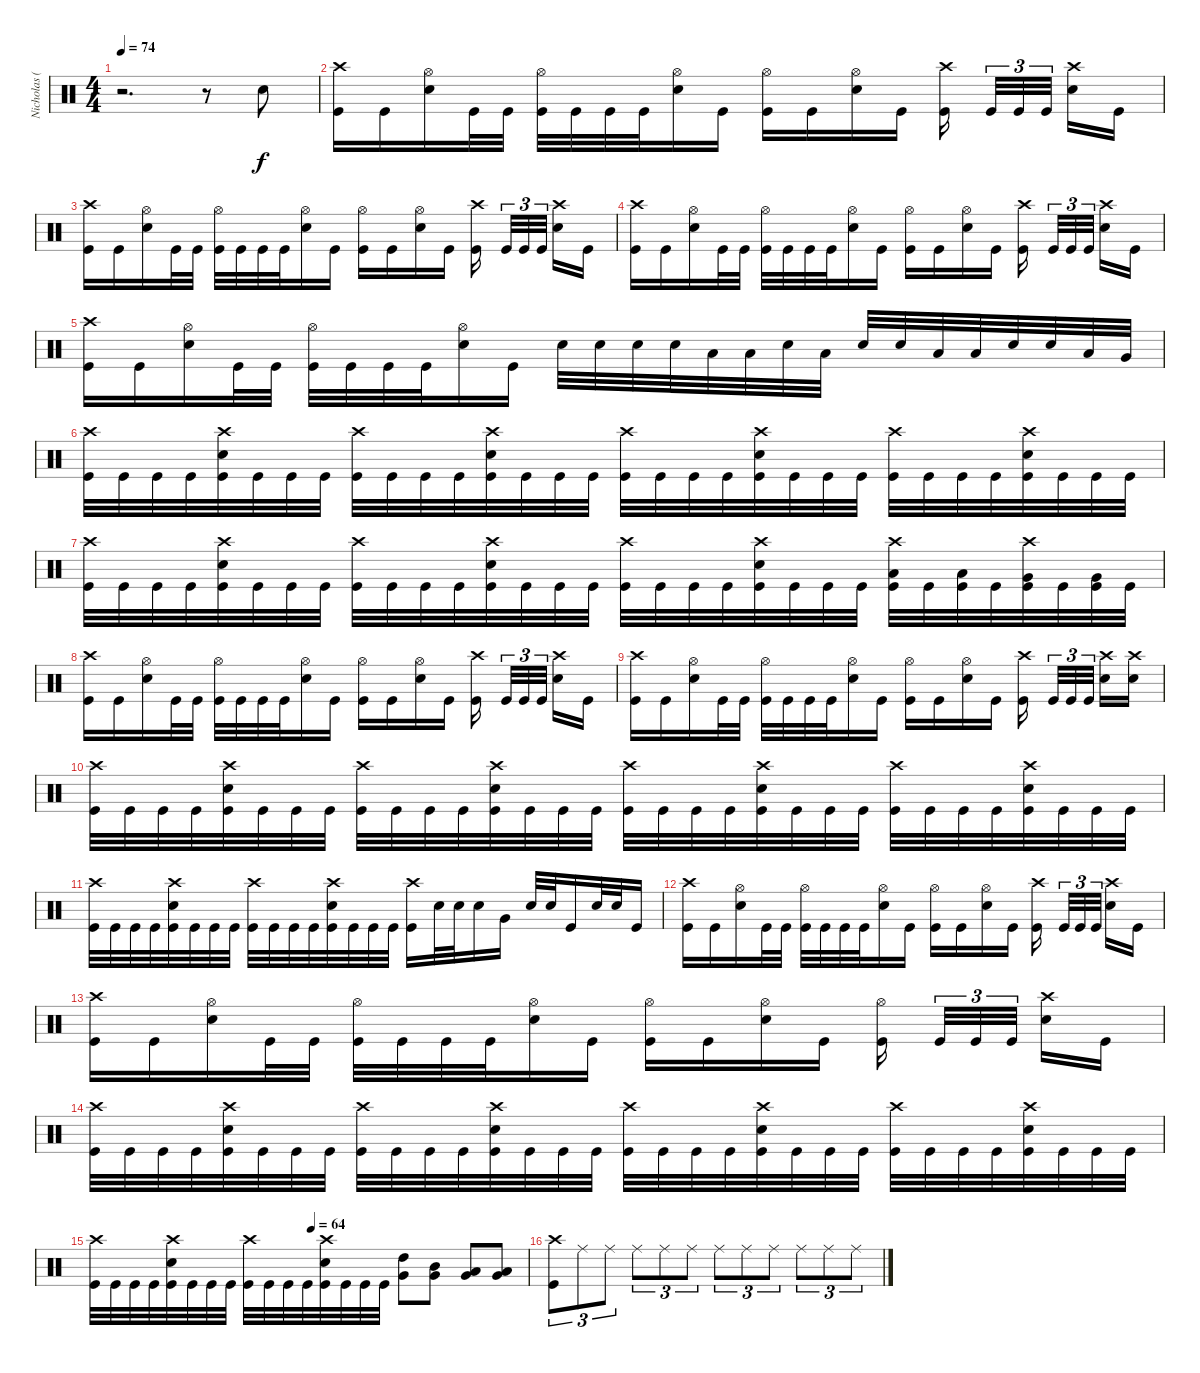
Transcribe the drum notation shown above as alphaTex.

\track ("Nicholas (Drums)" "Nicholas (") {instrument percussion}
\staff {score}
\articulation defaults
\ts (4 4)
\tempo 74
\clef neutral
\ks c
r.2{d dy f} r.8 "Electric Snare (hit)".8 |
("Crash high (hit)" "Kick (hit)").16 "Kick (hit)".16 ("Hi-Hat (open)" "Electric Snare (hit)").16 "Kick (hit)".32 "Kick (hit)".32 ("Hi-Hat (open)" "Kick (hit)").32 "Kick (hit)".32 "Kick (hit)".32 "Kick (hit)".32 ("Hi-Hat (open)" "Electric Snare (hit)").16 "Kick (hit)".16 ("Hi-Hat (open)" "Kick (hit)").16 "Kick (hit)".16 ("Hi-Hat (open)" "Electric Snare (hit)").16 "Kick (hit)".16 ("Crash high (hit)" "Kick (hit)").16 "Kick (hit)".32{tu (3 2)} "Kick (hit)".32{tu (3 2)} "Kick (hit)".32{tu (3 2)} ("Crash high (hit)" "Electric Snare (hit)").16 "Kick (hit)".16 |
("Crash high (hit)" "Kick (hit)").16 "Kick (hit)".16 ("Hi-Hat (open)" "Electric Snare (hit)").16 "Kick (hit)".32 "Kick (hit)".32 ("Hi-Hat (open)" "Kick (hit)").32 "Kick (hit)".32 "Kick (hit)".32 "Kick (hit)".32 ("Hi-Hat (open)" "Electric Snare (hit)").16 "Kick (hit)".16 ("Hi-Hat (open)" "Kick (hit)").16 "Kick (hit)".16 ("Hi-Hat (open)" "Electric Snare (hit)").16 "Kick (hit)".16 ("Crash high (hit)" "Kick (hit)").16 "Kick (hit)".32{tu (3 2)} "Kick (hit)".32{tu (3 2)} "Kick (hit)".32{tu (3 2)} ("Crash high (hit)" "Electric Snare (hit)").16 "Kick (hit)".16 |
("Crash high (hit)" "Kick (hit)").16 "Kick (hit)".16 ("Hi-Hat (open)" "Electric Snare (hit)").16 "Kick (hit)".32 "Kick (hit)".32 ("Hi-Hat (open)" "Kick (hit)").32 "Kick (hit)".32 "Kick (hit)".32 "Kick (hit)".32 ("Hi-Hat (open)" "Electric Snare (hit)").16 "Kick (hit)".16 ("Hi-Hat (open)" "Kick (hit)").16 "Kick (hit)".16 ("Hi-Hat (open)" "Electric Snare (hit)").16 "Kick (hit)".16 ("Crash high (hit)" "Kick (hit)").16 "Kick (hit)".32{tu (3 2)} "Kick (hit)".32{tu (3 2)} "Kick (hit)".32{tu (3 2)} ("Crash high (hit)" "Electric Snare (hit)").16 "Kick (hit)".16 |
("Crash high (hit)" "Kick (hit)").16 "Kick (hit)".16 ("Hi-Hat (open)" "Electric Snare (hit)").16 "Kick (hit)".32 "Kick (hit)".32 ("Hi-Hat (open)" "Kick (hit)").32 "Kick (hit)".32 "Kick (hit)".32 "Kick (hit)".32 ("Hi-Hat (open)" "Electric Snare (hit)").16 "Kick (hit)".16 "Electric Snare (hit)".32 "Electric Snare (hit)".32 "Electric Snare (hit)".32 "Electric Snare (hit)".32 "Low Tom (hit)".32 "Low Tom (hit)".32 "Electric Snare (hit)".32 "Low Tom (hit)".32 "Electric Snare (hit)".32 "Electric Snare (hit)".32 "Low Tom (hit)".32 "Low Tom (hit)".32 "Electric Snare (hit)".32 "Electric Snare (hit)".32 "Low Tom (hit)".32 "Very Low Tom (hit)".32 |
("Crash high (hit)" "Kick (hit)").32 "Kick (hit)".32 "Kick (hit)".32 "Kick (hit)".32 ("Crash high (hit)" "Electric Snare (hit)" "Kick (hit)").32 "Kick (hit)".32 "Kick (hit)".32 "Kick (hit)".32 ("Crash high (hit)" "Kick (hit)").32 "Kick (hit)".32 "Kick (hit)".32 "Kick (hit)".32 ("Crash high (hit)" "Electric Snare (hit)" "Kick (hit)").32 "Kick (hit)".32 "Kick (hit)".32 "Kick (hit)".32 ("Crash high (hit)" "Kick (hit)").32 "Kick (hit)".32 "Kick (hit)".32 "Kick (hit)".32 ("Crash high (hit)" "Electric Snare (hit)" "Kick (hit)").32 "Kick (hit)".32 "Kick (hit)".32 "Kick (hit)".32 ("Crash high (hit)" "Kick (hit)").32 "Kick (hit)".32 "Kick (hit)".32 "Kick (hit)".32 ("Crash high (hit)" "Electric Snare (hit)" "Kick (hit)").32 "Kick (hit)".32 "Kick (hit)".32 "Kick (hit)".32 |
("Crash high (hit)" "Kick (hit)").32 "Kick (hit)".32 "Kick (hit)".32 "Kick (hit)".32 ("Crash high (hit)" "Electric Snare (hit)" "Kick (hit)").32 "Kick (hit)".32 "Kick (hit)".32 "Kick (hit)".32 ("Crash high (hit)" "Kick (hit)").32 "Kick (hit)".32 "Kick (hit)".32 "Kick (hit)".32 ("Crash high (hit)" "Electric Snare (hit)" "Kick (hit)").32 "Kick (hit)".32 "Kick (hit)".32 "Kick (hit)".32 ("Crash high (hit)" "Kick (hit)").32 "Kick (hit)".32 "Kick (hit)".32 "Kick (hit)".32 ("Crash high (hit)" "Electric Snare (hit)" "Kick (hit)").32 "Kick (hit)".32 "Kick (hit)".32 "Kick (hit)".32 ("Crash high (hit)" "Low Tom (hit)" "Kick (hit)").32 "Kick (hit)".32 ("Low Tom (hit)" "Kick (hit)").32 "Kick (hit)".32 ("Crash high (hit)" "Very Low Tom (hit)" "Kick (hit)").32 "Kick (hit)".32 ("Very Low Tom (hit)" "Kick (hit)").32 "Kick (hit)".32 |
("Crash high (hit)" "Kick (hit)").16 "Kick (hit)".16 ("Hi-Hat (open)" "Electric Snare (hit)").16 "Kick (hit)".32 "Kick (hit)".32 ("Hi-Hat (open)" "Kick (hit)").32 "Kick (hit)".32 "Kick (hit)".32 "Kick (hit)".32 ("Hi-Hat (open)" "Electric Snare (hit)").16 "Kick (hit)".16 ("Hi-Hat (open)" "Kick (hit)").16 "Kick (hit)".16 ("Hi-Hat (open)" "Electric Snare (hit)").16 "Kick (hit)".16 ("Crash high (hit)" "Kick (hit)").16 "Kick (hit)".32{tu (3 2)} "Kick (hit)".32{tu (3 2)} "Kick (hit)".32{tu (3 2)} ("Crash high (hit)" "Electric Snare (hit)").16 "Kick (hit)".16 |
("Crash high (hit)" "Kick (hit)").16 "Kick (hit)".16 ("Hi-Hat (open)" "Electric Snare (hit)").16 "Kick (hit)".32 "Kick (hit)".32 ("Hi-Hat (open)" "Kick (hit)").32 "Kick (hit)".32 "Kick (hit)".32 "Kick (hit)".32 ("Hi-Hat (open)" "Electric Snare (hit)").16 "Kick (hit)".16 ("Hi-Hat (open)" "Kick (hit)").16 "Kick (hit)".16 ("Hi-Hat (open)" "Electric Snare (hit)").16 "Kick (hit)".16 ("Crash high (hit)" "Kick (hit)").16 "Kick (hit)".32{tu (3 2)} "Kick (hit)".32{tu (3 2)} "Kick (hit)".32{tu (3 2)} ("Crash high (hit)" "Electric Snare (hit)").16 ("Crash high (hit)" "Electric Snare (hit)").16 |
("Crash high (hit)" "Kick (hit)").32 "Kick (hit)".32 "Kick (hit)".32 "Kick (hit)".32 ("Crash high (hit)" "Electric Snare (hit)" "Kick (hit)").32 "Kick (hit)".32 "Kick (hit)".32 "Kick (hit)".32 ("Crash high (hit)" "Kick (hit)").32 "Kick (hit)".32 "Kick (hit)".32 "Kick (hit)".32 ("Crash high (hit)" "Electric Snare (hit)" "Kick (hit)").32 "Kick (hit)".32 "Kick (hit)".32 "Kick (hit)".32 ("Crash high (hit)" "Kick (hit)").32 "Kick (hit)".32 "Kick (hit)".32 "Kick (hit)".32 ("Crash high (hit)" "Electric Snare (hit)" "Kick (hit)").32 "Kick (hit)".32 "Kick (hit)".32 "Kick (hit)".32 ("Crash high (hit)" "Kick (hit)").32 "Kick (hit)".32 "Kick (hit)".32 "Kick (hit)".32 ("Crash high (hit)" "Electric Snare (hit)" "Kick (hit)").32 "Kick (hit)".32 "Kick (hit)".32 "Kick (hit)".32 |
("Crash high (hit)" "Kick (hit)").32 "Kick (hit)".32 "Kick (hit)".32 "Kick (hit)".32 ("Crash high (hit)" "Electric Snare (hit)" "Kick (hit)").32 "Kick (hit)".32 "Kick (hit)".32 "Kick (hit)".32 ("Crash high (hit)" "Kick (hit)").32 "Kick (hit)".32 "Kick (hit)".32 "Kick (hit)".32 ("Crash high (hit)" "Electric Snare (hit)" "Kick (hit)").32 "Kick (hit)".32 "Kick (hit)".32 "Kick (hit)".32 ("Crash high (hit)" "Kick (hit)").16 "Electric Snare (hit)".32 "Electric Snare (hit)".32 "Electric Snare (hit)".16 "Very Low Tom (hit)".16 "Electric Snare (hit)".32 "Electric Snare (hit)".32 "Kick (hit)".16 "Electric Snare (hit)".32 "Electric Snare (hit)".32 "Kick (hit)".16 |
("Crash high (hit)" "Kick (hit)").16 "Kick (hit)".16 ("Hi-Hat (open)" "Electric Snare (hit)").16 "Kick (hit)".32 "Kick (hit)".32 ("Hi-Hat (open)" "Kick (hit)").32 "Kick (hit)".32 "Kick (hit)".32 "Kick (hit)".32 ("Hi-Hat (open)" "Electric Snare (hit)").16 "Kick (hit)".16 ("Hi-Hat (open)" "Kick (hit)").16 "Kick (hit)".16 ("Hi-Hat (open)" "Electric Snare (hit)").16 "Kick (hit)".16 ("Crash high (hit)" "Kick (hit)").16 "Kick (hit)".32{tu (3 2)} "Kick (hit)".32{tu (3 2)} "Kick (hit)".32{tu (3 2)} ("Crash high (hit)" "Electric Snare (hit)").16 "Kick (hit)".16 |
("Crash high (hit)" "Kick (hit)").16 "Kick (hit)".16 ("Hi-Hat (open)" "Electric Snare (hit)").16 "Kick (hit)".32 "Kick (hit)".32 ("Hi-Hat (open)" "Kick (hit)").32 "Kick (hit)".32 "Kick (hit)".32 "Kick (hit)".32 ("Hi-Hat (open)" "Electric Snare (hit)").16 "Kick (hit)".16 ("Hi-Hat (open)" "Kick (hit)").16 "Kick (hit)".16 ("Hi-Hat (open)" "Electric Snare (hit)").16 "Kick (hit)".16 ("Hi-Hat (open)" "Kick (hit)").16 "Kick (hit)".32{tu (3 2)} "Kick (hit)".32{tu (3 2)} "Kick (hit)".32{tu (3 2)} ("Crash high (hit)" "Electric Snare (hit)").16 "Kick (hit)".16 |
("Crash high (hit)" "Kick (hit)").32 "Kick (hit)".32 "Kick (hit)".32 "Kick (hit)".32 ("Crash high (hit)" "Electric Snare (hit)" "Kick (hit)").32 "Kick (hit)".32 "Kick (hit)".32 "Kick (hit)".32 ("Crash high (hit)" "Kick (hit)").32 "Kick (hit)".32 "Kick (hit)".32 "Kick (hit)".32 ("Crash high (hit)" "Electric Snare (hit)" "Kick (hit)").32 "Kick (hit)".32 "Kick (hit)".32 "Kick (hit)".32 ("Crash high (hit)" "Kick (hit)").32 "Kick (hit)".32 "Kick (hit)".32 "Kick (hit)".32 ("Crash high (hit)" "Electric Snare (hit)" "Kick (hit)").32 "Kick (hit)".32 "Kick (hit)".32 "Kick (hit)".32 ("Crash high (hit)" "Kick (hit)").32 "Kick (hit)".32 "Kick (hit)".32 "Kick (hit)".32 ("Crash high (hit)" "Electric Snare (hit)" "Kick (hit)").32 "Kick (hit)".32 "Kick (hit)".32 "Kick (hit)".32 |
\tempo (64 0.5)
("Crash high (hit)" "Kick (hit)").32 "Kick (hit)".32 "Kick (hit)".32 "Kick (hit)".32 ("Crash high (hit)" "Electric Snare (hit)" "Kick (hit)").32 "Kick (hit)".32 "Kick (hit)".32 "Kick (hit)".32 ("Crash high (hit)" "Kick (hit)").32 "Kick (hit)".32 "Kick (hit)".32 "Kick (hit)".32 ("Crash high (hit)" "Electric Snare (hit)" "Kick (hit)").32 "Kick (hit)".32 "Kick (hit)".32 "Kick (hit)".32 ("High Tom (hit)" "Very Low Tom (hit)").8{bd 60} ("Mid Tom (hit)" "Very Low Tom (hit)").8{bd 60} ("Low Tom (hit)" "Very Low Tom (hit)").8{bd 60} ("Low Tom (hit)" "Very Low Tom (hit)").8{bd 60} |
("Crash high (hit)" "Kick (hit)").8{tu (3 2)} "Ride (middle)".8{tu (3 2)} "Ride (middle)".8{tu (3 2)} "Ride (middle)".8{tu (3 2)} "Ride (middle)".8{tu (3 2)} "Ride (middle)".8{tu (3 2)} "Ride (middle)".8{tu (3 2)} "Ride (middle)".8{tu (3 2)} "Ride (middle)".8{tu (3 2)} "Ride (middle)".8{tu (3 2)} "Ride (middle)".8{tu (3 2)} "Ride (middle)".8{tu (3 2)}
